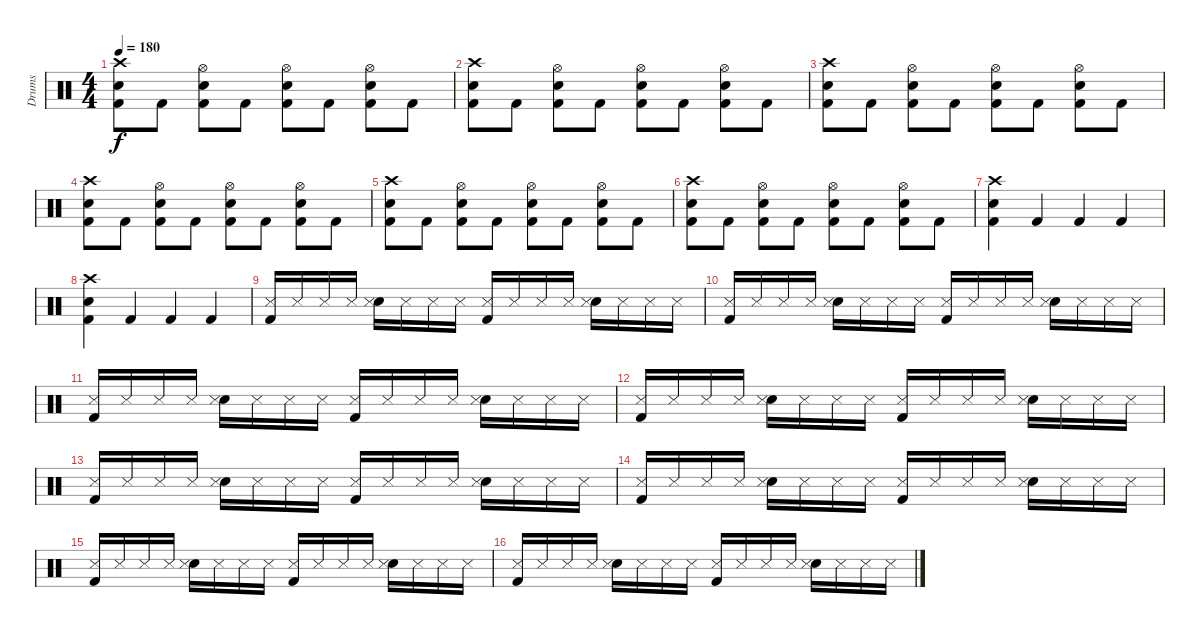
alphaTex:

\track ("Drums" "Drums") {instrument percussion}
\staff {score}
\articulation defaults
\ts (4 4)
\tempo 180
\clef neutral
\ks c
("Crash high (hit)" "Snare (hit) 2" "Kick (hit) 2").8{dy f} "Kick (hit) 2".8 ("Hi-Hat (open)" "Snare (hit) 2" "Kick (hit) 2").8 "Kick (hit) 2".8 ("Hi-Hat (open)" "Snare (hit) 2" "Kick (hit) 2").8 "Kick (hit) 2".8 ("Hi-Hat (open)" "Snare (hit) 2" "Kick (hit) 2").8 "Kick (hit) 2".8 |
("Crash high (hit)" "Snare (hit) 2" "Kick (hit) 2").8 "Kick (hit) 2".8 ("Hi-Hat (open)" "Snare (hit) 2" "Kick (hit) 2").8 "Kick (hit) 2".8 ("Hi-Hat (open)" "Snare (hit) 2" "Kick (hit) 2").8 "Kick (hit) 2".8 ("Hi-Hat (open)" "Snare (hit) 2" "Kick (hit) 2").8 "Kick (hit) 2".8 |
("Crash high (hit)" "Snare (hit) 2" "Kick (hit) 2").8 "Kick (hit) 2".8 ("Hi-Hat (open)" "Snare (hit) 2" "Kick (hit) 2").8 "Kick (hit) 2".8 ("Hi-Hat (open)" "Snare (hit) 2" "Kick (hit) 2").8 "Kick (hit) 2".8 ("Hi-Hat (open)" "Snare (hit) 2" "Kick (hit) 2").8 "Kick (hit) 2".8 |
("Crash high (hit)" "Snare (hit) 2" "Kick (hit) 2").8 "Kick (hit) 2".8 ("Hi-Hat (open)" "Snare (hit) 2" "Kick (hit) 2").8 "Kick (hit) 2".8 ("Hi-Hat (open)" "Snare (hit) 2" "Kick (hit) 2").8 "Kick (hit) 2".8 ("Hi-Hat (open)" "Snare (hit) 2" "Kick (hit) 2").8 "Kick (hit) 2".8 |
("Crash high (hit)" "Snare (hit) 2" "Kick (hit) 2").8 "Kick (hit) 2".8 ("Hi-Hat (open)" "Snare (hit) 2" "Kick (hit) 2").8 "Kick (hit) 2".8 ("Hi-Hat (open)" "Snare (hit) 2" "Kick (hit) 2").8 "Kick (hit) 2".8 ("Hi-Hat (open)" "Snare (hit) 2" "Kick (hit) 2").8 "Kick (hit) 2".8 |
("Crash high (hit)" "Snare (hit) 2" "Kick (hit) 2").8 "Kick (hit) 2".8 ("Hi-Hat (open)" "Snare (hit) 2" "Kick (hit) 2").8 "Kick (hit) 2".8 ("Hi-Hat (open)" "Snare (hit) 2" "Kick (hit) 2").8 "Kick (hit) 2".8 ("Hi-Hat (open)" "Snare (hit) 2" "Kick (hit) 2").8 "Kick (hit) 2".8 |
("Crash high (hit)" "Kick (hit) 2" "Snare (hit) 2").4 "Kick (hit) 2".4 "Kick (hit) 2".4 "Kick (hit) 2".4 |
("Crash high (hit)" "Kick (hit) 2" "Snare (hit) 2").4 "Kick (hit) 2".4 "Kick (hit) 2".4 "Kick (hit) 2".4 |
("Kick (hit) 2" "Snare (side stick) 3").16{volume 13} "Snare (side stick) 3".16 "Snare (side stick) 3".16 "Snare (side stick) 3".16 ("Snare (hit) 2" "Snare (side stick) 3").16 "Snare (side stick) 3".16 "Snare (side stick) 3".16 "Snare (side stick) 3".16 ("Kick (hit) 2" "Snare (side stick) 3").16 "Snare (side stick) 3".16 "Snare (side stick) 3".16 "Snare (side stick) 3".16 ("Snare (hit) 2" "Snare (side stick) 3").16 "Snare (side stick) 3".16 "Snare (side stick) 3".16 "Snare (side stick) 3".16 |
("Kick (hit) 2" "Snare (side stick) 3").16 "Snare (side stick) 3".16 "Snare (side stick) 3".16 "Snare (side stick) 3".16 ("Snare (hit) 2" "Snare (side stick) 3").16 "Snare (side stick) 3".16 "Snare (side stick) 3".16 "Snare (side stick) 3".16 ("Kick (hit) 2" "Snare (side stick) 3").16 "Snare (side stick) 3".16 "Snare (side stick) 3".16 "Snare (side stick) 3".16 ("Snare (hit) 2" "Snare (side stick) 3").16 "Snare (side stick) 3".16 "Snare (side stick) 3".16 "Snare (side stick) 3".16 |
("Kick (hit) 2" "Snare (side stick) 3").16 "Snare (side stick) 3".16 "Snare (side stick) 3".16 "Snare (side stick) 3".16 ("Snare (hit) 2" "Snare (side stick) 3").16 "Snare (side stick) 3".16 "Snare (side stick) 3".16 "Snare (side stick) 3".16 ("Kick (hit) 2" "Snare (side stick) 3").16 "Snare (side stick) 3".16 "Snare (side stick) 3".16 "Snare (side stick) 3".16 ("Snare (hit) 2" "Snare (side stick) 3").16 "Snare (side stick) 3".16 "Snare (side stick) 3".16 "Snare (side stick) 3".16 |
("Kick (hit) 2" "Snare (side stick) 3").16 "Snare (side stick) 3".16 "Snare (side stick) 3".16 "Snare (side stick) 3".16 ("Snare (hit) 2" "Snare (side stick) 3").16 "Snare (side stick) 3".16 "Snare (side stick) 3".16 "Snare (side stick) 3".16 ("Kick (hit) 2" "Snare (side stick) 3").16 "Snare (side stick) 3".16 "Snare (side stick) 3".16 "Snare (side stick) 3".16 ("Snare (hit) 2" "Snare (side stick) 3").16 "Snare (side stick) 3".16 "Snare (side stick) 3".16 "Snare (side stick) 3".16 |
("Kick (hit) 2" "Snare (side stick) 3").16 "Snare (side stick) 3".16 "Snare (side stick) 3".16 "Snare (side stick) 3".16 ("Snare (hit) 2" "Snare (side stick) 3").16 "Snare (side stick) 3".16 "Snare (side stick) 3".16 "Snare (side stick) 3".16 ("Kick (hit) 2" "Snare (side stick) 3").16 "Snare (side stick) 3".16 "Snare (side stick) 3".16 "Snare (side stick) 3".16 ("Snare (hit) 2" "Snare (side stick) 3").16 "Snare (side stick) 3".16 "Snare (side stick) 3".16 "Snare (side stick) 3".16 |
("Kick (hit) 2" "Snare (side stick) 3").16 "Snare (side stick) 3".16 "Snare (side stick) 3".16 "Snare (side stick) 3".16 ("Snare (hit) 2" "Snare (side stick) 3").16 "Snare (side stick) 3".16 "Snare (side stick) 3".16 "Snare (side stick) 3".16 ("Kick (hit) 2" "Snare (side stick) 3").16 "Snare (side stick) 3".16 "Snare (side stick) 3".16 "Snare (side stick) 3".16 ("Snare (hit) 2" "Snare (side stick) 3").16 "Snare (side stick) 3".16 "Snare (side stick) 3".16 "Snare (side stick) 3".16 |
("Kick (hit) 2" "Snare (side stick) 3").16 "Snare (side stick) 3".16 "Snare (side stick) 3".16 "Snare (side stick) 3".16 ("Snare (hit) 2" "Snare (side stick) 3").16 "Snare (side stick) 3".16 "Snare (side stick) 3".16 "Snare (side stick) 3".16 ("Kick (hit) 2" "Snare (side stick) 3").16 "Snare (side stick) 3".16 "Snare (side stick) 3".16 "Snare (side stick) 3".16 ("Snare (hit) 2" "Snare (side stick) 3").16 "Snare (side stick) 3".16 "Snare (side stick) 3".16 "Snare (side stick) 3".16 |
("Kick (hit) 2" "Snare (side stick) 3").16 "Snare (side stick) 3".16 "Snare (side stick) 3".16 "Snare (side stick) 3".16 ("Snare (hit) 2" "Snare (side stick) 3").16 "Snare (side stick) 3".16 "Snare (side stick) 3".16 "Snare (side stick) 3".16 ("Kick (hit) 2" "Snare (side stick) 3").16 "Snare (side stick) 3".16 "Snare (side stick) 3".16 "Snare (side stick) 3".16 ("Snare (hit) 2" "Snare (side stick) 3").16 "Snare (side stick) 3".16 "Snare (side stick) 3".16 "Snare (side stick) 3".16
